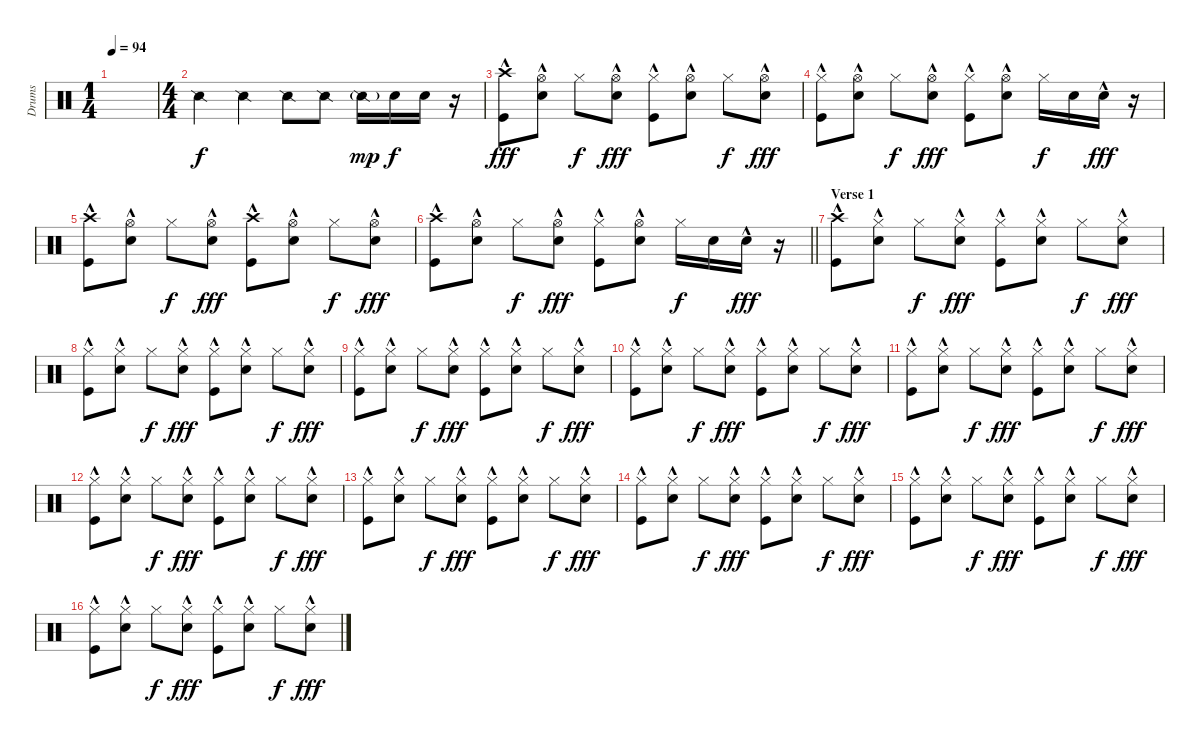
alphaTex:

\track ("Drums" "Drums") {instrument percussion}
\staff {score}
\articulation defaults
\ts (1 4)
\tempo 94
\clef neutral
\ks c
|
\ts (4 4)
"Snare (side stick) 2".4 "Snare (side stick) 2".4 "Snare (side stick) 2".8 "Snare (side stick) 2".8 "Snare (side stick) 2"{g}.16{dy mp} "Snare (hit) 2".16{dy f} "Snare (hit) 2".16 r.16 |
("Crash high (hit)" "Kick (hit)"{hac}).8{dy fff} ("Hi-Hat (open)" "Snare (hit) 2"{hac}).8 "Hi-Hat (closed)".8{dy f} ("Hi-Hat (open)" "Snare (hit) 2"{hac}).8{dy fff} ("Hi-Hat (closed)" "Kick (hit)"{hac}).8 ("Hi-Hat (open)" "Snare (hit) 2"{hac}).8 "Hi-Hat (closed)".8{dy f} ("Hi-Hat (open)" "Snare (hit) 2"{hac}).8{dy fff} |
("Hi-Hat (closed)" "Kick (hit)"{hac}).8 ("Hi-Hat (open)" "Snare (hit) 2"{hac}).8 "Hi-Hat (closed)".8{dy f} ("Hi-Hat (open)" "Snare (hit) 2"{hac}).8{dy fff} ("Hi-Hat (closed)" "Kick (hit)"{hac}).8 ("Hi-Hat (open)" "Snare (hit) 2"{hac}).8 "Hi-Hat (closed)".16{dy f} "Snare (hit) 2".16 "Snare (hit) 2"{hac}.16{dy fff} r.16 |
("Crash high (hit)" "Kick (hit)"{hac}).8 ("Hi-Hat (open)" "Snare (hit) 2"{hac}).8 "Hi-Hat (closed)".8{dy f} ("Hi-Hat (open)" "Snare (hit) 2"{hac}).8{dy fff} ("Crash high (hit)" "Kick (hit)"{hac}).8 ("Hi-Hat (open)" "Snare (hit) 2"{hac}).8 "Hi-Hat (closed)".8{dy f} ("Hi-Hat (open)" "Snare (hit) 2"{hac}).8{dy fff} |
\barLineRight lightlight
("Crash high (hit)" "Kick (hit)"{hac}).8 ("Hi-Hat (open)" "Snare (hit) 2"{hac}).8 "Hi-Hat (closed)".8{dy f} ("Hi-Hat (open)" "Snare (hit) 2"{hac}).8{dy fff} ("Hi-Hat (closed)" "Kick (hit)"{hac}).8 ("Hi-Hat (open)" "Snare (hit) 2"{hac}).8 "Hi-Hat (closed)".16{dy f} "Snare (hit) 2".16 "Snare (hit) 2"{hac}.16{dy fff} r.16 |
\section ("" "Verse 1")
("Crash high (hit)" "Kick (hit)"{hac}).8 ("Hi-Hat (closed)" "Snare (hit) 2"{hac}).8 "Hi-Hat (closed)".8{dy f} ("Hi-Hat (closed)" "Snare (hit) 2"{hac}).8{dy fff} ("Hi-Hat (closed)" "Kick (hit)"{hac}).8 ("Hi-Hat (closed)" "Snare (hit) 2"{hac}).8 "Hi-Hat (closed)".8{dy f} ("Hi-Hat (closed)" "Snare (hit) 2"{hac}).8{dy fff} |
("Hi-Hat (closed)" "Kick (hit)"{hac}).8 ("Hi-Hat (closed)" "Snare (hit) 2"{hac}).8 "Hi-Hat (closed)".8{dy f} ("Hi-Hat (closed)" "Snare (hit) 2"{hac}).8{dy fff} ("Hi-Hat (closed)" "Kick (hit)"{hac}).8 ("Hi-Hat (closed)" "Snare (hit) 2"{hac}).8 "Hi-Hat (closed)".8{dy f} ("Hi-Hat (closed)" "Snare (hit) 2"{hac}).8{dy fff} |
("Hi-Hat (closed)" "Kick (hit)"{hac}).8 ("Hi-Hat (closed)" "Snare (hit) 2"{hac}).8 "Hi-Hat (closed)".8{dy f} ("Hi-Hat (closed)" "Snare (hit) 2"{hac}).8{dy fff} ("Hi-Hat (closed)" "Kick (hit)"{hac}).8 ("Hi-Hat (closed)" "Snare (hit) 2"{hac}).8 "Hi-Hat (closed)".8{dy f} ("Hi-Hat (closed)" "Snare (hit) 2"{hac}).8{dy fff} |
("Hi-Hat (closed)" "Kick (hit)"{hac}).8 ("Hi-Hat (closed)" "Snare (hit) 2"{hac}).8 "Hi-Hat (closed)".8{dy f} ("Hi-Hat (closed)" "Snare (hit) 2"{hac}).8{dy fff} ("Hi-Hat (closed)" "Kick (hit)"{hac}).8 ("Hi-Hat (closed)" "Snare (hit) 2"{hac}).8 "Hi-Hat (closed)".8{dy f} ("Hi-Hat (closed)" "Snare (hit) 2"{hac}).8{dy fff} |
("Hi-Hat (closed)" "Kick (hit)"{hac}).8 ("Hi-Hat (closed)" "Snare (hit) 2"{hac}).8 "Hi-Hat (closed)".8{dy f} ("Hi-Hat (closed)" "Snare (hit) 2"{hac}).8{dy fff} ("Hi-Hat (closed)" "Kick (hit)"{hac}).8 ("Hi-Hat (closed)" "Snare (hit) 2"{hac}).8 "Hi-Hat (closed)".8{dy f} ("Hi-Hat (closed)" "Snare (hit) 2"{hac}).8{dy fff} |
("Hi-Hat (closed)" "Kick (hit)"{hac}).8 ("Hi-Hat (closed)" "Snare (hit) 2"{hac}).8 "Hi-Hat (closed)".8{dy f} ("Hi-Hat (closed)" "Snare (hit) 2"{hac}).8{dy fff} ("Hi-Hat (closed)" "Kick (hit)"{hac}).8 ("Hi-Hat (closed)" "Snare (hit) 2"{hac}).8 "Hi-Hat (closed)".8{dy f} ("Hi-Hat (closed)" "Snare (hit) 2"{hac}).8{dy fff} |
("Hi-Hat (closed)" "Kick (hit)"{hac}).8 ("Hi-Hat (closed)" "Snare (hit) 2"{hac}).8 "Hi-Hat (closed)".8{dy f} ("Hi-Hat (closed)" "Snare (hit) 2"{hac}).8{dy fff} ("Hi-Hat (closed)" "Kick (hit)"{hac}).8 ("Hi-Hat (closed)" "Snare (hit) 2"{hac}).8 "Hi-Hat (closed)".8{dy f} ("Hi-Hat (closed)" "Snare (hit) 2"{hac}).8{dy fff} |
("Hi-Hat (closed)" "Kick (hit)"{hac}).8 ("Hi-Hat (closed)" "Snare (hit) 2"{hac}).8 "Hi-Hat (closed)".8{dy f} ("Hi-Hat (closed)" "Snare (hit) 2"{hac}).8{dy fff} ("Hi-Hat (closed)" "Kick (hit)"{hac}).8 ("Hi-Hat (closed)" "Snare (hit) 2"{hac}).8 "Hi-Hat (closed)".8{dy f} ("Hi-Hat (closed)" "Snare (hit) 2"{hac}).8{dy fff} |
("Hi-Hat (closed)" "Kick (hit)"{hac}).8 ("Hi-Hat (closed)" "Snare (hit) 2"{hac}).8 "Hi-Hat (closed)".8{dy f} ("Hi-Hat (closed)" "Snare (hit) 2"{hac}).8{dy fff} ("Hi-Hat (closed)" "Kick (hit)"{hac}).8 ("Hi-Hat (closed)" "Snare (hit) 2"{hac}).8 "Hi-Hat (closed)".8{dy f} ("Hi-Hat (closed)" "Snare (hit) 2"{hac}).8{dy fff} |
("Hi-Hat (closed)" "Kick (hit)"{hac}).8 ("Hi-Hat (closed)" "Snare (hit) 2"{hac}).8 "Hi-Hat (closed)".8{dy f} ("Hi-Hat (closed)" "Snare (hit) 2"{hac}).8{dy fff} ("Hi-Hat (closed)" "Kick (hit)"{hac}).8 ("Hi-Hat (closed)" "Snare (hit) 2"{hac}).8 "Hi-Hat (closed)".8{dy f} ("Hi-Hat (closed)" "Snare (hit) 2"{hac}).8{dy fff}
